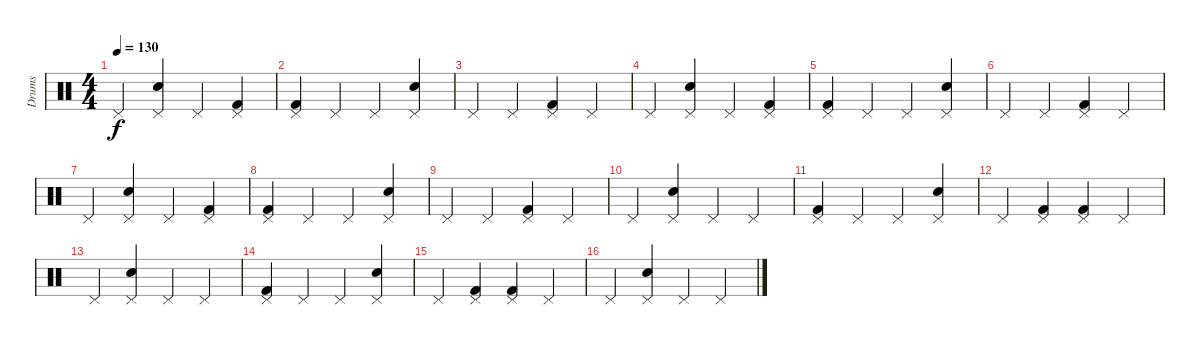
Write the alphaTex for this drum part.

\track ("Drums" "Drums") {instrument percussion}
\staff {score}
\articulation defaults
\ts (4 4)
\tempo 130
\clef neutral
\ks c "Pedal Hi-Hat (hit)".4{dy f}
("Pedal Hi-Hat (hit)" "Snare (hit) 2").4 "Pedal Hi-Hat (hit)".4 ("Pedal Hi-Hat (hit)" "Kick (hit) 2").4 |
("Pedal Hi-Hat (hit)" "Kick (hit) 2").4 "Pedal Hi-Hat (hit)".4 "Pedal Hi-Hat (hit)".4 ("Pedal Hi-Hat (hit)" "Snare (hit) 2").4 |
"Pedal Hi-Hat (hit)".4 "Pedal Hi-Hat (hit)".4 ("Pedal Hi-Hat (hit)" "Kick (hit) 2").4 "Pedal Hi-Hat (hit)".4 |
"Pedal Hi-Hat (hit)".4 ("Pedal Hi-Hat (hit)" "Snare (hit) 2").4 "Pedal Hi-Hat (hit)".4 ("Pedal Hi-Hat (hit)" "Kick (hit) 2").4 |
("Pedal Hi-Hat (hit)" "Kick (hit) 2").4 "Pedal Hi-Hat (hit)".4 "Pedal Hi-Hat (hit)".4 ("Pedal Hi-Hat (hit)" "Snare (hit) 2").4 |
"Pedal Hi-Hat (hit)".4 "Pedal Hi-Hat (hit)".4 ("Pedal Hi-Hat (hit)" "Kick (hit) 2").4 "Pedal Hi-Hat (hit)".4 |
"Pedal Hi-Hat (hit)".4 ("Pedal Hi-Hat (hit)" "Snare (hit) 2").4 "Pedal Hi-Hat (hit)".4 ("Pedal Hi-Hat (hit)" "Kick (hit) 2").4 |
("Pedal Hi-Hat (hit)" "Kick (hit) 2").4 "Pedal Hi-Hat (hit)".4 "Pedal Hi-Hat (hit)".4 ("Pedal Hi-Hat (hit)" "Snare (hit) 2").4 |
"Pedal Hi-Hat (hit)".4 "Pedal Hi-Hat (hit)".4 ("Pedal Hi-Hat (hit)" "Kick (hit) 2").4 "Pedal Hi-Hat (hit)".4 |
"Pedal Hi-Hat (hit)".4 ("Pedal Hi-Hat (hit)" "Snare (hit) 2").4 "Pedal Hi-Hat (hit)".4 "Pedal Hi-Hat (hit)".4 |
("Pedal Hi-Hat (hit)" "Kick (hit) 2").4 "Pedal Hi-Hat (hit)".4 "Pedal Hi-Hat (hit)".4 ("Pedal Hi-Hat (hit)" "Snare (hit) 2").4 |
"Pedal Hi-Hat (hit)".4 ("Pedal Hi-Hat (hit)" "Kick (hit) 2").4 ("Pedal Hi-Hat (hit)" "Kick (hit) 2").4 "Pedal Hi-Hat (hit)".4 |
"Pedal Hi-Hat (hit)".4 ("Pedal Hi-Hat (hit)" "Snare (hit) 2").4 "Pedal Hi-Hat (hit)".4 "Pedal Hi-Hat (hit)".4 |
("Pedal Hi-Hat (hit)" "Kick (hit) 2").4 "Pedal Hi-Hat (hit)".4 "Pedal Hi-Hat (hit)".4 ("Pedal Hi-Hat (hit)" "Snare (hit) 2").4 |
"Pedal Hi-Hat (hit)".4 ("Pedal Hi-Hat (hit)" "Kick (hit) 2").4 ("Pedal Hi-Hat (hit)" "Kick (hit) 2").4 "Pedal Hi-Hat (hit)".4 |
"Pedal Hi-Hat (hit)".4 ("Pedal Hi-Hat (hit)" "Snare (hit) 2").4 "Pedal Hi-Hat (hit)".4 "Pedal Hi-Hat (hit)".4
